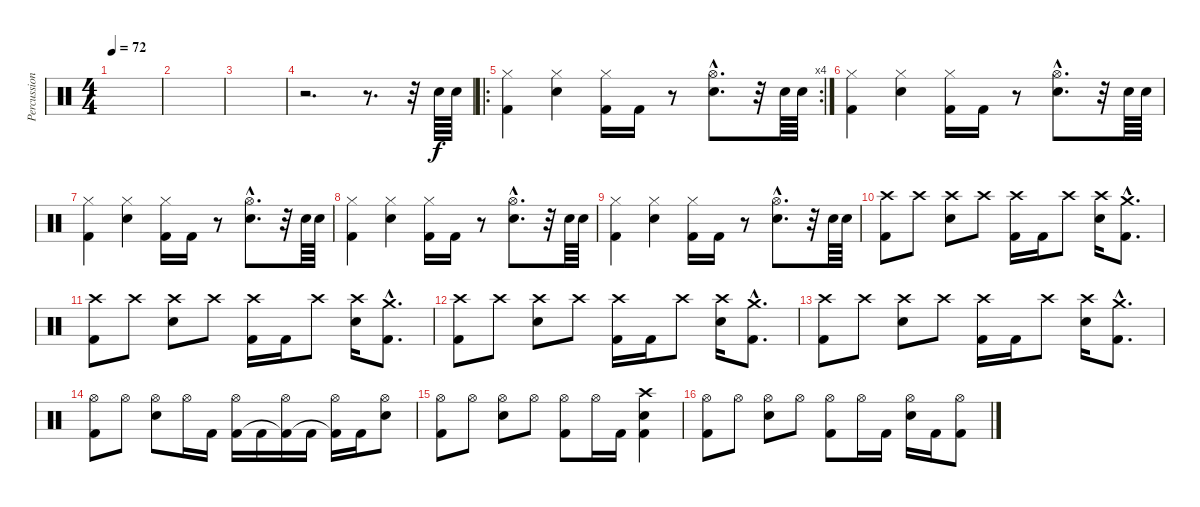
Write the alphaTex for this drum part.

\track ("Percussions" "Percussion") {instrument percussion}
\staff {score}
\articulation defaults
\ts (4 4)
\tempo 72
\clef neutral
\ks c
|
|
|
r.2{d} r.8{d} r.32 "Electric Snare (hit)".64 "Electric Snare (hit)".64 |
\ro
\rc 4
("Kick (hit) 2" "Hi-Hat (closed)").4 ("Electric Snare (hit)" "Hi-Hat (closed)").4 ("Kick (hit) 2" "Hi-Hat (closed)").16 "Kick (hit) 2".16 r.8 ("Electric Snare (hit)"{hac} "Hi-Hat (open)"{hac}).8{d} r.32 "Electric Snare (hit)".64 "Electric Snare (hit)".64 |
("Kick (hit) 2" "Hi-Hat (closed)").4 ("Electric Snare (hit)" "Hi-Hat (closed)").4 ("Kick (hit) 2" "Hi-Hat (closed)").16 "Kick (hit) 2".16 r.8 ("Electric Snare (hit)"{hac} "Hi-Hat (open)"{hac}).8{d} r.32 "Electric Snare (hit)".64 "Electric Snare (hit)".64 |
("Kick (hit) 2" "Hi-Hat (closed)").4 ("Electric Snare (hit)" "Hi-Hat (closed)").4 ("Kick (hit) 2" "Hi-Hat (closed)").16 "Kick (hit) 2".16 r.8 ("Electric Snare (hit)"{hac} "Hi-Hat (open)"{hac}).8{d} r.32 "Electric Snare (hit)".64 "Electric Snare (hit)".64 |
("Kick (hit) 2" "Hi-Hat (closed)").4 ("Electric Snare (hit)" "Hi-Hat (closed)").4 ("Kick (hit) 2" "Hi-Hat (closed)").16 "Kick (hit) 2".16 r.8 ("Electric Snare (hit)"{hac} "Hi-Hat (open)"{hac}).8{d} r.32 "Electric Snare (hit)".64 "Electric Snare (hit)".64 |
("Kick (hit) 2" "Hi-Hat (closed)").4 ("Electric Snare (hit)" "Hi-Hat (closed)").4 ("Kick (hit) 2" "Hi-Hat (closed)").16 "Kick (hit) 2".16 r.8 ("Electric Snare (hit)"{hac} "Hi-Hat (open)"{hac}).8{d} r.32 "Electric Snare (hit)".64 "Electric Snare (hit)".64 |
("Crash high (hit)" "Kick (hit) 2").8 "Crash high (hit)".8 ("Crash high (hit)" "Electric Snare (hit)").8 "Crash high (hit)".8 ("Crash high (hit)" "Kick (hit) 2").16 "Kick (hit) 2".16 "Crash high (hit)".8 ("Crash high (hit)" "Electric Snare (hit)").16 ("Crash medium (hit)"{hac} "Kick (hit) 2"{hac}).8{d} |
("Crash high (hit)" "Kick (hit) 2").8 "Crash high (hit)".8 ("Crash high (hit)" "Electric Snare (hit)").8 "Crash high (hit)".8 ("Crash high (hit)" "Kick (hit) 2").16 "Kick (hit) 2".16 "Crash high (hit)".8 ("Crash high (hit)" "Electric Snare (hit)").16 ("Crash medium (hit)"{hac} "Kick (hit) 2"{hac}).8{d} |
("Crash high (hit)" "Kick (hit) 2").8 "Crash high (hit)".8 ("Crash high (hit)" "Electric Snare (hit)").8 "Crash high (hit)".8 ("Crash high (hit)" "Kick (hit) 2").16 "Kick (hit) 2".16 "Crash high (hit)".8 ("Crash high (hit)" "Electric Snare (hit)").16 ("Crash medium (hit)"{hac} "Kick (hit) 2"{hac}).8{d} |
("Crash high (hit)" "Kick (hit) 2").8 "Crash high (hit)".8 ("Crash high (hit)" "Electric Snare (hit)").8 "Crash high (hit)".8 ("Crash high (hit)" "Kick (hit) 2").16 "Kick (hit) 2".16 "Crash high (hit)".8 ("Crash high (hit)" "Electric Snare (hit)").16 ("Crash medium (hit)"{hac} "Kick (hit) 2"{hac}).8{d} |
("Kick (hit) 2" "Hi-Hat (open)").8 "Hi-Hat (open)".8 ("Electric Snare (hit)" "Hi-Hat (open)").8 "Hi-Hat (open)".16 "Kick (hit) 2".16 ("Hi-Hat (open)" "Kick (hit) 2").16 "Kick (hit) 2".16 ("Hi-Hat (open)" "Kick (hit) 2"{t}).16 "Kick (hit) 2".16 ("Hi-Hat (open)" "Kick (hit) 2"{t}).16 "Kick (hit) 2".16 ("Hi-Hat (open)" "Electric Snare (hit)").8 |
("Kick (hit) 2" "Hi-Hat (open)").8 "Hi-Hat (open)".8 ("Electric Snare (hit)" "Hi-Hat (open)").8 "Hi-Hat (open)".8 ("Kick (hit) 2" "Hi-Hat (open)").8 "Hi-Hat (open)".16 "Kick (hit) 2".16 ("Crash high (hit)" "Kick (hit) 2" "Electric Snare (hit)").4 |
("Kick (hit) 2" "Hi-Hat (open)").8 "Hi-Hat (open)".8 ("Electric Snare (hit)" "Hi-Hat (open)").8 "Hi-Hat (open)".8 ("Hi-Hat (open)" "Kick (hit) 2").8 "Hi-Hat (open)".16 "Kick (hit) 2".16 ("Hi-Hat (open)" "Electric Snare (hit)").16 "Kick (hit) 2".16 ("Hi-Hat (open)" "Kick (hit) 2").8
